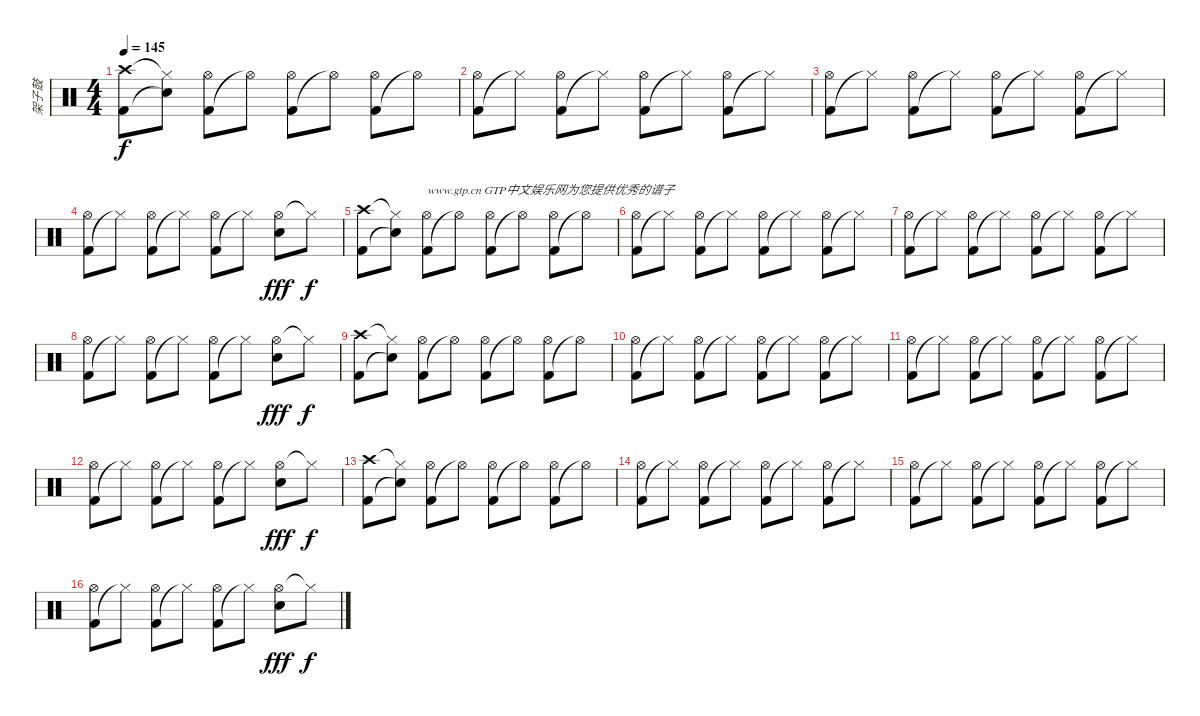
\track ("架子鼓" "架子鼓") {instrument percussion}
\staff {score}
\articulation defaults
\ts (4 4)
\tempo 145
\clef neutral
\ks c
("Kick (hit) 2" "Crash high (hit)").8{dy f} ("Snare (hit)"{t} "Hi-Hat (closed)"{t}).8 ("Kick (hit) 2" "Hi-Hat (open)").8 "Hi-Hat (open)"{t}.8 ("Kick (hit) 2" "Hi-Hat (open)").8 "Hi-Hat (open)"{t}.8 ("Kick (hit) 2" "Hi-Hat (open)").8 "Hi-Hat (open)"{t}.8 |
("Kick (hit) 2" "Hi-Hat (open)").8 "Hi-Hat (closed)"{t}.8 ("Kick (hit) 2" "Hi-Hat (open)").8 "Hi-Hat (closed)"{t}.8 ("Kick (hit) 2" "Hi-Hat (open)").8 "Hi-Hat (closed)"{t}.8 ("Kick (hit) 2" "Hi-Hat (open)").8 "Hi-Hat (closed)"{t}.8 |
("Kick (hit) 2" "Hi-Hat (open)").8 "Hi-Hat (closed)"{t}.8 ("Kick (hit) 2" "Hi-Hat (open)").8 "Hi-Hat (closed)"{t}.8 ("Kick (hit) 2" "Hi-Hat (open)").8 "Hi-Hat (closed)"{t}.8 ("Kick (hit) 2" "Hi-Hat (open)").8 "Hi-Hat (closed)"{t}.8 |
("Kick (hit) 2" "Hi-Hat (open)").8 "Hi-Hat (closed)"{t}.8 ("Kick (hit) 2" "Hi-Hat (open)").8 "Hi-Hat (closed)"{t}.8 ("Kick (hit) 2" "Hi-Hat (open)").8 "Hi-Hat (closed)"{t}.8 ("Hi-Hat (open)" "Snare (hit) 2").8{dy fff} "Hi-Hat (closed)"{t}.8{dy f} |
("Kick (hit) 2" "Crash high (hit)").8 ("Snare (hit)"{t} "Hi-Hat (closed)"{t}).8 ("Kick (hit) 2" "Hi-Hat (open)").8{txt "www.gtp.cn GTP中文娱乐网为您提供优秀的谱子"} "Hi-Hat (open)"{t}.8 ("Kick (hit) 2" "Hi-Hat (open)").8 "Hi-Hat (open)"{t}.8 ("Kick (hit) 2" "Hi-Hat (open)").8 "Hi-Hat (open)"{t}.8 |
("Kick (hit) 2" "Hi-Hat (open)").8 "Hi-Hat (closed)"{t}.8 ("Kick (hit) 2" "Hi-Hat (open)").8 "Hi-Hat (closed)"{t}.8 ("Kick (hit) 2" "Hi-Hat (open)").8 "Hi-Hat (closed)"{t}.8 ("Kick (hit) 2" "Hi-Hat (open)").8 "Hi-Hat (closed)"{t}.8 |
("Kick (hit) 2" "Hi-Hat (open)").8 "Hi-Hat (closed)"{t}.8 ("Kick (hit) 2" "Hi-Hat (open)").8 "Hi-Hat (closed)"{t}.8 ("Kick (hit) 2" "Hi-Hat (open)").8 "Hi-Hat (closed)"{t}.8 ("Kick (hit) 2" "Hi-Hat (open)").8 "Hi-Hat (closed)"{t}.8 |
("Kick (hit) 2" "Hi-Hat (open)").8 "Hi-Hat (closed)"{t}.8 ("Kick (hit) 2" "Hi-Hat (open)").8 "Hi-Hat (closed)"{t}.8 ("Kick (hit) 2" "Hi-Hat (open)").8 "Hi-Hat (closed)"{t}.8 ("Hi-Hat (open)" "Snare (hit) 2").8{dy fff} "Hi-Hat (closed)"{t}.8{dy f} |
("Kick (hit) 2" "Crash high (hit)").8 ("Snare (hit)"{t} "Hi-Hat (closed)"{t}).8 ("Kick (hit) 2" "Hi-Hat (open)").8 "Hi-Hat (open)"{t}.8 ("Kick (hit) 2" "Hi-Hat (open)").8 "Hi-Hat (open)"{t}.8 ("Kick (hit) 2" "Hi-Hat (open)").8 "Hi-Hat (open)"{t}.8 |
("Kick (hit) 2" "Hi-Hat (open)").8 "Hi-Hat (closed)"{t}.8 ("Kick (hit) 2" "Hi-Hat (open)").8 "Hi-Hat (closed)"{t}.8 ("Kick (hit) 2" "Hi-Hat (open)").8 "Hi-Hat (closed)"{t}.8 ("Kick (hit) 2" "Hi-Hat (open)").8 "Hi-Hat (closed)"{t}.8 |
("Kick (hit) 2" "Hi-Hat (open)").8 "Hi-Hat (closed)"{t}.8 ("Kick (hit) 2" "Hi-Hat (open)").8 "Hi-Hat (closed)"{t}.8 ("Kick (hit) 2" "Hi-Hat (open)").8 "Hi-Hat (closed)"{t}.8 ("Kick (hit) 2" "Hi-Hat (open)").8 "Hi-Hat (closed)"{t}.8 |
("Kick (hit) 2" "Hi-Hat (open)").8 "Hi-Hat (closed)"{t}.8 ("Kick (hit) 2" "Hi-Hat (open)").8 "Hi-Hat (closed)"{t}.8 ("Kick (hit) 2" "Hi-Hat (open)").8 "Hi-Hat (closed)"{t}.8 ("Hi-Hat (open)" "Snare (hit) 2").8{dy fff} "Hi-Hat (closed)"{t}.8{dy f} |
("Kick (hit) 2" "Crash high (hit)").8 ("Snare (hit)"{t} "Hi-Hat (closed)"{t}).8 ("Kick (hit) 2" "Hi-Hat (open)").8 "Hi-Hat (open)"{t}.8 ("Kick (hit) 2" "Hi-Hat (open)").8 "Hi-Hat (open)"{t}.8 ("Kick (hit) 2" "Hi-Hat (open)").8 "Hi-Hat (open)"{t}.8 |
("Kick (hit) 2" "Hi-Hat (open)").8 "Hi-Hat (closed)"{t}.8 ("Kick (hit) 2" "Hi-Hat (open)").8 "Hi-Hat (closed)"{t}.8 ("Kick (hit) 2" "Hi-Hat (open)").8 "Hi-Hat (closed)"{t}.8 ("Kick (hit) 2" "Hi-Hat (open)").8 "Hi-Hat (closed)"{t}.8 |
("Kick (hit) 2" "Hi-Hat (open)").8 "Hi-Hat (closed)"{t}.8 ("Kick (hit) 2" "Hi-Hat (open)").8 "Hi-Hat (closed)"{t}.8 ("Kick (hit) 2" "Hi-Hat (open)").8 "Hi-Hat (closed)"{t}.8 ("Kick (hit) 2" "Hi-Hat (open)").8 "Hi-Hat (closed)"{t}.8 |
("Kick (hit) 2" "Hi-Hat (open)").8 "Hi-Hat (closed)"{t}.8 ("Kick (hit) 2" "Hi-Hat (open)").8 "Hi-Hat (closed)"{t}.8 ("Kick (hit) 2" "Hi-Hat (open)").8 "Hi-Hat (closed)"{t}.8 ("Hi-Hat (open)" "Snare (hit) 2").8{dy fff} "Hi-Hat (closed)"{t}.8{dy f}
